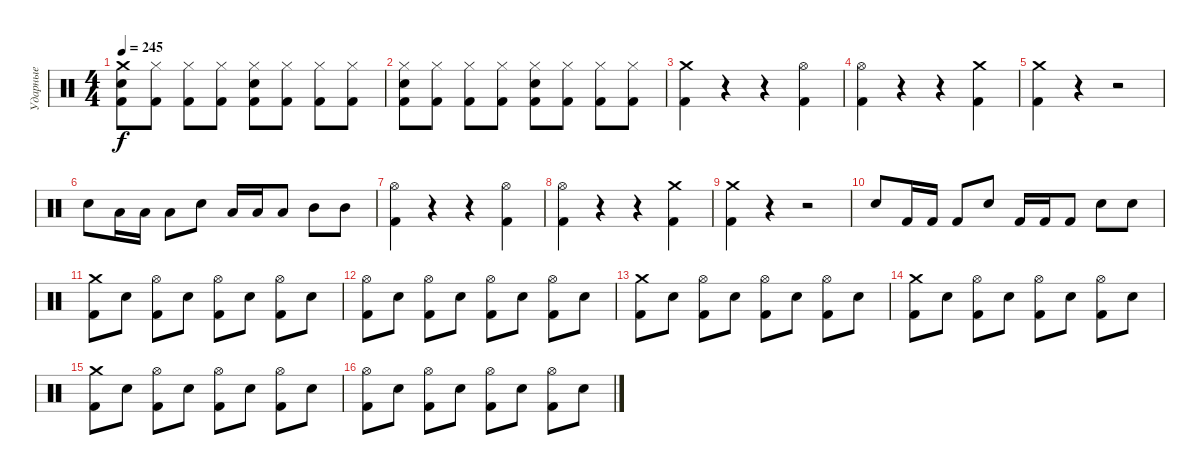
\track ("Ударные" "Ударные") {instrument percussion}
\staff {score}
\articulation defaults
\ts (4 4)
\tempo 245
\clef neutral
\ks c
("Crash medium (hit)" "Kick (hit) 2" "Snare (hit) 2").8{dy f} ("Hi-Hat (closed)" "Kick (hit) 2").8 ("Hi-Hat (closed)" "Kick (hit) 2").8 ("Hi-Hat (closed)" "Kick (hit) 2").8 ("Hi-Hat (closed)" "Kick (hit) 2" "Snare (hit) 2").8 ("Hi-Hat (closed)" "Kick (hit) 2").8 ("Hi-Hat (closed)" "Kick (hit) 2").8 ("Hi-Hat (closed)" "Kick (hit) 2").8 |
("Hi-Hat (closed)" "Kick (hit) 2" "Snare (hit) 2").8 ("Hi-Hat (closed)" "Kick (hit) 2").8 ("Hi-Hat (closed)" "Kick (hit) 2").8 ("Hi-Hat (closed)" "Kick (hit) 2").8 ("Hi-Hat (closed)" "Kick (hit) 2" "Snare (hit) 2").8 ("Hi-Hat (closed)" "Kick (hit) 2").8 ("Hi-Hat (closed)" "Kick (hit) 2").8 ("Hi-Hat (closed)" "Kick (hit) 2").8 |
("Crash medium (hit)" "Kick (hit) 2").4 r.4 r.4 ("Hi-Hat (open)" "Kick (hit) 2").4 |
("Hi-Hat (open)" "Kick (hit) 2").4 r.4 r.4 ("Crash medium (hit)" "Kick (hit) 2").4 |
("Crash medium (hit)" "Kick (hit) 2").4 r.4 r.2 |
"Snare (hit) 2".8 "Low Tom (hit)".16 "Low Tom (hit)".16 "Low Tom (hit)".8 "Snare (hit) 2".8 "Low Tom (hit)".16 "Low Tom (hit)".16 "Low Tom (hit)".8 "Mid Tom (hit)".8 "Mid Tom (hit)".8 |
("Hi-Hat (open)" "Kick (hit) 2").4 r.4 r.4 ("Hi-Hat (open)" "Kick (hit) 2").4 |
("Hi-Hat (open)" "Kick (hit) 2").4 r.4 r.4 ("Crash medium (hit)" "Kick (hit) 2").4 |
("Crash medium (hit)" "Kick (hit) 2").4 r.4 r.2 |
"Snare (hit) 2".8 "Kick (hit) 2".16 "Kick (hit) 2".16 "Kick (hit) 2".8 "Snare (hit) 2".8 "Kick (hit) 2".16 "Kick (hit) 2".16 "Kick (hit) 2".8 "Snare (hit) 2".8 "Snare (hit) 2".8 |
("Crash medium (hit)" "Kick (hit) 2").8 "Snare (hit) 2".8 ("Hi-Hat (open)" "Kick (hit) 2").8 "Snare (hit) 2".8 ("Hi-Hat (open)" "Kick (hit) 2").8 "Snare (hit) 2".8 ("Hi-Hat (open)" "Kick (hit) 2").8 "Snare (hit) 2".8 |
("Hi-Hat (open)" "Kick (hit) 2").8 "Snare (hit) 2".8 ("Hi-Hat (open)" "Kick (hit) 2").8 "Snare (hit) 2".8 ("Hi-Hat (open)" "Kick (hit) 2").8 "Snare (hit) 2".8 ("Hi-Hat (open)" "Kick (hit) 2").8 "Snare (hit) 2".8 |
("Crash medium (hit)" "Kick (hit) 2").8 "Snare (hit) 2".8 ("Hi-Hat (open)" "Kick (hit) 2").8 "Snare (hit) 2".8 ("Hi-Hat (open)" "Kick (hit) 2").8 "Snare (hit) 2".8 ("Hi-Hat (open)" "Kick (hit) 2").8 "Snare (hit) 2".8 |
("Crash medium (hit)" "Kick (hit) 2").8 "Snare (hit) 2".8 ("Hi-Hat (open)" "Kick (hit) 2").8 "Snare (hit) 2".8 ("Hi-Hat (open)" "Kick (hit) 2").8 "Snare (hit) 2".8 ("Hi-Hat (open)" "Kick (hit) 2").8 "Snare (hit) 2".8 |
("Crash medium (hit)" "Kick (hit) 2").8 "Snare (hit) 2".8 ("Hi-Hat (open)" "Kick (hit) 2").8 "Snare (hit) 2".8 ("Hi-Hat (open)" "Kick (hit) 2").8 "Snare (hit) 2".8 ("Hi-Hat (open)" "Kick (hit) 2").8 "Snare (hit) 2".8 |
("Hi-Hat (open)" "Kick (hit) 2").8 "Snare (hit) 2".8 ("Hi-Hat (open)" "Kick (hit) 2").8 "Snare (hit) 2".8 ("Hi-Hat (open)" "Kick (hit) 2").8 "Snare (hit) 2".8 ("Hi-Hat (open)" "Kick (hit) 2").8 "Snare (hit) 2".8
